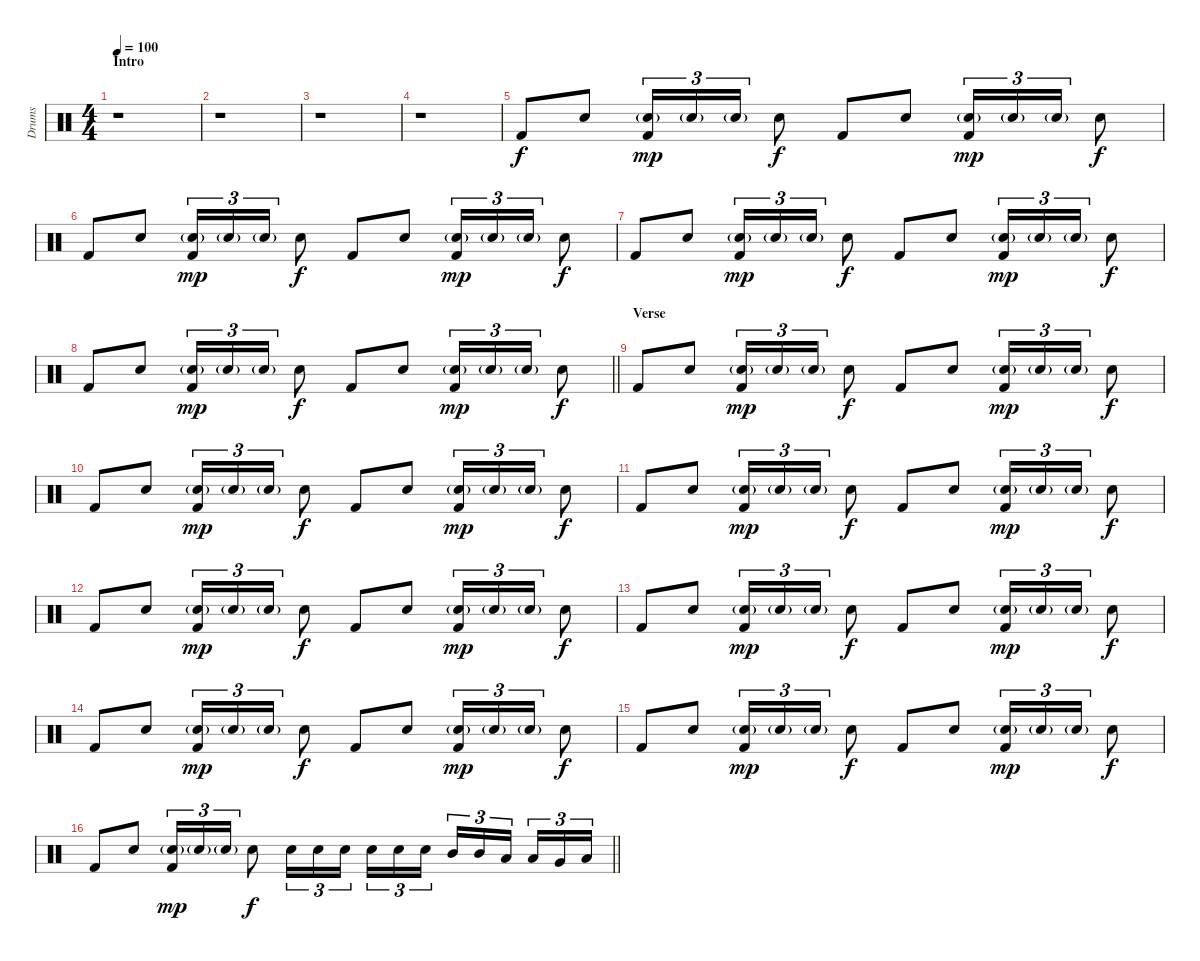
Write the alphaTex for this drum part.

\track ("Drums" "Drums") {instrument percussion}
\staff {score}
\articulation defaults
\ts (4 4)
\section ("" "Intro")
\tempo 100
\clef neutral
\ks c
r.1{dy f} |
r.1 |
r.1 |
r.1 |
"Kick (hit) 2".8 "Electric Snare (hit)".8 ("Electric Snare (hit)"{g} "Kick (hit) 2").16{tu (3 2) dy mp} "Electric Snare (hit)"{g}.16{tu (3 2)} "Electric Snare (hit)"{g}.16{tu (3 2)} "Electric Snare (hit)".8{dy f} "Kick (hit) 2".8 "Electric Snare (hit)".8 ("Electric Snare (hit)"{g} "Kick (hit) 2").16{tu (3 2) dy mp} "Electric Snare (hit)"{g}.16{tu (3 2)} "Electric Snare (hit)"{g}.16{tu (3 2)} "Electric Snare (hit)".8{dy f} |
"Kick (hit) 2".8 "Electric Snare (hit)".8 ("Electric Snare (hit)"{g} "Kick (hit) 2").16{tu (3 2) dy mp} "Electric Snare (hit)"{g}.16{tu (3 2)} "Electric Snare (hit)"{g}.16{tu (3 2)} "Electric Snare (hit)".8{dy f} "Kick (hit) 2".8 "Electric Snare (hit)".8 ("Electric Snare (hit)"{g} "Kick (hit) 2").16{tu (3 2) dy mp} "Electric Snare (hit)"{g}.16{tu (3 2)} "Electric Snare (hit)"{g}.16{tu (3 2)} "Electric Snare (hit)".8{dy f} |
"Kick (hit) 2".8 "Electric Snare (hit)".8 ("Electric Snare (hit)"{g} "Kick (hit) 2").16{tu (3 2) dy mp} "Electric Snare (hit)"{g}.16{tu (3 2)} "Electric Snare (hit)"{g}.16{tu (3 2)} "Electric Snare (hit)".8{dy f} "Kick (hit) 2".8 "Electric Snare (hit)".8 ("Electric Snare (hit)"{g} "Kick (hit) 2").16{tu (3 2) dy mp} "Electric Snare (hit)"{g}.16{tu (3 2)} "Electric Snare (hit)"{g}.16{tu (3 2)} "Electric Snare (hit)".8{dy f} |
\barLineRight lightlight "Kick (hit) 2".8 "Electric Snare (hit)".8
("Electric Snare (hit)"{g} "Kick (hit) 2").16{tu (3 2) dy mp} "Electric Snare (hit)"{g}.16{tu (3 2)} "Electric Snare (hit)"{g}.16{tu (3 2)} "Electric Snare (hit)".8{dy f} "Kick (hit) 2".8 "Electric Snare (hit)".8 ("Electric Snare (hit)"{g} "Kick (hit) 2").16{tu (3 2) dy mp} "Electric Snare (hit)"{g}.16{tu (3 2)} "Electric Snare (hit)"{g}.16{tu (3 2)} "Electric Snare (hit)".8{dy f} |
\section ("" "Verse")
"Kick (hit) 2".8 "Electric Snare (hit)".8 ("Electric Snare (hit)"{g} "Kick (hit) 2").16{tu (3 2) dy mp} "Electric Snare (hit)"{g}.16{tu (3 2)} "Electric Snare (hit)"{g}.16{tu (3 2)} "Electric Snare (hit)".8{dy f} "Kick (hit) 2".8 "Electric Snare (hit)".8 ("Electric Snare (hit)"{g} "Kick (hit) 2").16{tu (3 2) dy mp} "Electric Snare (hit)"{g}.16{tu (3 2)} "Electric Snare (hit)"{g}.16{tu (3 2)} "Electric Snare (hit)".8{dy f} |
"Kick (hit) 2".8 "Electric Snare (hit)".8 ("Electric Snare (hit)"{g} "Kick (hit) 2").16{tu (3 2) dy mp} "Electric Snare (hit)"{g}.16{tu (3 2)} "Electric Snare (hit)"{g}.16{tu (3 2)} "Electric Snare (hit)".8{dy f} "Kick (hit) 2".8 "Electric Snare (hit)".8 ("Electric Snare (hit)"{g} "Kick (hit) 2").16{tu (3 2) dy mp} "Electric Snare (hit)"{g}.16{tu (3 2)} "Electric Snare (hit)"{g}.16{tu (3 2)} "Electric Snare (hit)".8{dy f} |
"Kick (hit) 2".8 "Electric Snare (hit)".8 ("Electric Snare (hit)"{g} "Kick (hit) 2").16{tu (3 2) dy mp} "Electric Snare (hit)"{g}.16{tu (3 2)} "Electric Snare (hit)"{g}.16{tu (3 2)} "Electric Snare (hit)".8{dy f} "Kick (hit) 2".8 "Electric Snare (hit)".8 ("Electric Snare (hit)"{g} "Kick (hit) 2").16{tu (3 2) dy mp} "Electric Snare (hit)"{g}.16{tu (3 2)} "Electric Snare (hit)"{g}.16{tu (3 2)} "Electric Snare (hit)".8{dy f} |
"Kick (hit) 2".8 "Electric Snare (hit)".8 ("Electric Snare (hit)"{g} "Kick (hit) 2").16{tu (3 2) dy mp} "Electric Snare (hit)"{g}.16{tu (3 2)} "Electric Snare (hit)"{g}.16{tu (3 2)} "Electric Snare (hit)".8{dy f} "Kick (hit) 2".8 "Electric Snare (hit)".8 ("Electric Snare (hit)"{g} "Kick (hit) 2").16{tu (3 2) dy mp} "Electric Snare (hit)"{g}.16{tu (3 2)} "Electric Snare (hit)"{g}.16{tu (3 2)} "Electric Snare (hit)".8{dy f} |
"Kick (hit) 2".8 "Electric Snare (hit)".8 ("Electric Snare (hit)"{g} "Kick (hit) 2").16{tu (3 2) dy mp} "Electric Snare (hit)"{g}.16{tu (3 2)} "Electric Snare (hit)"{g}.16{tu (3 2)} "Electric Snare (hit)".8{dy f} "Kick (hit) 2".8 "Electric Snare (hit)".8 ("Electric Snare (hit)"{g} "Kick (hit) 2").16{tu (3 2) dy mp} "Electric Snare (hit)"{g}.16{tu (3 2)} "Electric Snare (hit)"{g}.16{tu (3 2)} "Electric Snare (hit)".8{dy f} |
"Kick (hit) 2".8 "Electric Snare (hit)".8 ("Electric Snare (hit)"{g} "Kick (hit) 2").16{tu (3 2) dy mp} "Electric Snare (hit)"{g}.16{tu (3 2)} "Electric Snare (hit)"{g}.16{tu (3 2)} "Electric Snare (hit)".8{dy f} "Kick (hit) 2".8 "Electric Snare (hit)".8 ("Electric Snare (hit)"{g} "Kick (hit) 2").16{tu (3 2) dy mp} "Electric Snare (hit)"{g}.16{tu (3 2)} "Electric Snare (hit)"{g}.16{tu (3 2)} "Electric Snare (hit)".8{dy f} |
"Kick (hit) 2".8 "Electric Snare (hit)".8 ("Electric Snare (hit)"{g} "Kick (hit) 2").16{tu (3 2) dy mp} "Electric Snare (hit)"{g}.16{tu (3 2)} "Electric Snare (hit)"{g}.16{tu (3 2)} "Electric Snare (hit)".8{dy f} "Kick (hit) 2".8 "Electric Snare (hit)".8 ("Electric Snare (hit)"{g} "Kick (hit) 2").16{tu (3 2) dy mp} "Electric Snare (hit)"{g}.16{tu (3 2)} "Electric Snare (hit)"{g}.16{tu (3 2)} "Electric Snare (hit)".8{dy f} |
\barLineRight lightlight "Kick (hit) 2".8 "Electric Snare (hit)".8
("Electric Snare (hit)"{g} "Kick (hit) 2").16{tu (3 2) dy mp} "Electric Snare (hit)"{g}.16{tu (3 2)} "Electric Snare (hit)"{g}.16{tu (3 2)} "Electric Snare (hit)".8{dy f} "Electric Snare (hit)".16{tu (3 2)} "Electric Snare (hit)".16{tu (3 2)} "Electric Snare (hit)".16{tu (3 2)} "Electric Snare (hit)".16{tu (3 2)} "Electric Snare (hit)".16{tu (3 2)} "Electric Snare (hit)".16{tu (3 2)} "Mid Tom (hit)".16{tu (3 2)} "Mid Tom (hit)".16{tu (3 2)} "Low Tom (hit)".16{tu (3 2)} "Low Tom (hit)".16{tu (3 2)} "Very Low Tom (hit)".16{tu (3 2)} "Low Floor Tom (hit)".16{tu (3 2)}
